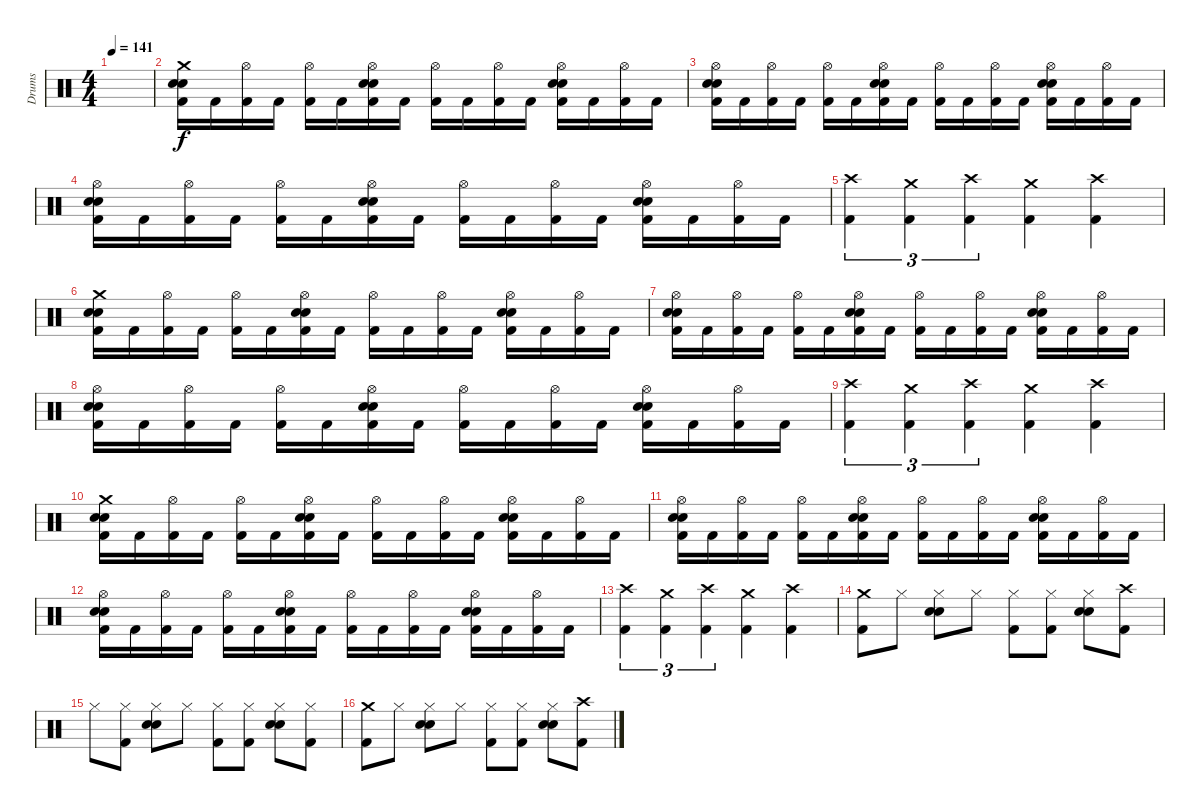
\track ("Drums " "Drums ") {instrument percussion}
\staff {score}
\articulation defaults
\ts (4 4)
\tempo 141
\clef neutral
\ks c
|
("Crash medium (hit)" "Snare (hit) 2" "Electric Snare (hit)" "Kick (hit) 2").16 "Kick (hit) 2".16 ("Hi-Hat (open)" "Kick (hit) 2").16 "Kick (hit) 2".16 ("Hi-Hat (open)" "Kick (hit) 2").16 "Kick (hit) 2".16 ("Hi-Hat (open)" "Snare (hit) 2" "Electric Snare (hit)" "Kick (hit) 2").16 "Kick (hit) 2".16 ("Hi-Hat (open)" "Kick (hit) 2").16 "Kick (hit) 2".16 ("Hi-Hat (open)" "Kick (hit) 2").16 "Kick (hit) 2".16 ("Hi-Hat (open)" "Snare (hit) 2" "Electric Snare (hit)" "Kick (hit) 2").16 "Kick (hit) 2".16 ("Hi-Hat (open)" "Kick (hit) 2").16 "Kick (hit) 2".16 |
("Hi-Hat (open)" "Snare (hit) 2" "Electric Snare (hit)" "Kick (hit) 2").16 "Kick (hit) 2".16 ("Hi-Hat (open)" "Kick (hit) 2").16 "Kick (hit) 2".16 ("Hi-Hat (open)" "Kick (hit) 2").16 "Kick (hit) 2".16 ("Hi-Hat (open)" "Snare (hit) 2" "Electric Snare (hit)" "Kick (hit) 2").16 "Kick (hit) 2".16 ("Hi-Hat (open)" "Kick (hit) 2").16 "Kick (hit) 2".16 ("Hi-Hat (open)" "Kick (hit) 2").16 "Kick (hit) 2".16 ("Hi-Hat (open)" "Snare (hit) 2" "Electric Snare (hit)" "Kick (hit) 2").16 "Kick (hit) 2".16 ("Hi-Hat (open)" "Kick (hit) 2").16 "Kick (hit) 2".16 |
("Hi-Hat (open)" "Snare (hit) 2" "Electric Snare (hit)" "Kick (hit) 2").16 "Kick (hit) 2".16 ("Hi-Hat (open)" "Kick (hit) 2").16 "Kick (hit) 2".16 ("Hi-Hat (open)" "Kick (hit) 2").16 "Kick (hit) 2".16 ("Hi-Hat (open)" "Snare (hit) 2" "Electric Snare (hit)" "Kick (hit) 2").16 "Kick (hit) 2".16 ("Hi-Hat (open)" "Kick (hit) 2").16 "Kick (hit) 2".16 ("Hi-Hat (open)" "Kick (hit) 2").16 "Kick (hit) 2".16 ("Hi-Hat (open)" "Snare (hit) 2" "Electric Snare (hit)" "Kick (hit) 2").16 "Kick (hit) 2".16 ("Hi-Hat (open)" "Kick (hit) 2").16 "Kick (hit) 2".16 |
("Crash high (hit)" "Kick (hit) 2").4{tu (3 2)} ("Crash medium (hit)" "Kick (hit) 2").4{tu (3 2)} ("Crash high (hit)" "Kick (hit) 2").4{tu (3 2)} ("Crash medium (hit)" "Kick (hit) 2").4 ("Crash high (hit)" "Kick (hit) 2").4 |
("Crash medium (hit)" "Snare (hit) 2" "Electric Snare (hit)" "Kick (hit) 2").16 "Kick (hit) 2".16 ("Hi-Hat (open)" "Kick (hit) 2").16 "Kick (hit) 2".16 ("Hi-Hat (open)" "Kick (hit) 2").16 "Kick (hit) 2".16 ("Hi-Hat (open)" "Snare (hit) 2" "Electric Snare (hit)" "Kick (hit) 2").16 "Kick (hit) 2".16 ("Hi-Hat (open)" "Kick (hit) 2").16 "Kick (hit) 2".16 ("Hi-Hat (open)" "Kick (hit) 2").16 "Kick (hit) 2".16 ("Hi-Hat (open)" "Snare (hit) 2" "Electric Snare (hit)" "Kick (hit) 2").16 "Kick (hit) 2".16 ("Hi-Hat (open)" "Kick (hit) 2").16 "Kick (hit) 2".16 |
("Hi-Hat (open)" "Snare (hit) 2" "Electric Snare (hit)" "Kick (hit) 2").16 "Kick (hit) 2".16 ("Hi-Hat (open)" "Kick (hit) 2").16 "Kick (hit) 2".16 ("Hi-Hat (open)" "Kick (hit) 2").16 "Kick (hit) 2".16 ("Hi-Hat (open)" "Snare (hit) 2" "Electric Snare (hit)" "Kick (hit) 2").16 "Kick (hit) 2".16 ("Hi-Hat (open)" "Kick (hit) 2").16 "Kick (hit) 2".16 ("Hi-Hat (open)" "Kick (hit) 2").16 "Kick (hit) 2".16 ("Hi-Hat (open)" "Snare (hit) 2" "Electric Snare (hit)" "Kick (hit) 2").16 "Kick (hit) 2".16 ("Hi-Hat (open)" "Kick (hit) 2").16 "Kick (hit) 2".16 |
("Hi-Hat (open)" "Snare (hit) 2" "Electric Snare (hit)" "Kick (hit) 2").16 "Kick (hit) 2".16 ("Hi-Hat (open)" "Kick (hit) 2").16 "Kick (hit) 2".16 ("Hi-Hat (open)" "Kick (hit) 2").16 "Kick (hit) 2".16 ("Hi-Hat (open)" "Snare (hit) 2" "Electric Snare (hit)" "Kick (hit) 2").16 "Kick (hit) 2".16 ("Hi-Hat (open)" "Kick (hit) 2").16 "Kick (hit) 2".16 ("Hi-Hat (open)" "Kick (hit) 2").16 "Kick (hit) 2".16 ("Hi-Hat (open)" "Snare (hit) 2" "Electric Snare (hit)" "Kick (hit) 2").16 "Kick (hit) 2".16 ("Hi-Hat (open)" "Kick (hit) 2").16 "Kick (hit) 2".16 |
("Crash high (hit)" "Kick (hit) 2").4{tu (3 2)} ("Crash medium (hit)" "Kick (hit) 2").4{tu (3 2)} ("Crash high (hit)" "Kick (hit) 2").4{tu (3 2)} ("Crash medium (hit)" "Kick (hit) 2").4 ("Crash high (hit)" "Kick (hit) 2").4 |
("Crash medium (hit)" "Snare (hit) 2" "Electric Snare (hit)" "Kick (hit) 2").16 "Kick (hit) 2".16 ("Hi-Hat (open)" "Kick (hit) 2").16 "Kick (hit) 2".16 ("Hi-Hat (open)" "Kick (hit) 2").16 "Kick (hit) 2".16 ("Hi-Hat (open)" "Snare (hit) 2" "Electric Snare (hit)" "Kick (hit) 2").16 "Kick (hit) 2".16 ("Hi-Hat (open)" "Kick (hit) 2").16 "Kick (hit) 2".16 ("Hi-Hat (open)" "Kick (hit) 2").16 "Kick (hit) 2".16 ("Hi-Hat (open)" "Snare (hit) 2" "Electric Snare (hit)" "Kick (hit) 2").16 "Kick (hit) 2".16 ("Hi-Hat (open)" "Kick (hit) 2").16 "Kick (hit) 2".16 |
("Hi-Hat (open)" "Snare (hit) 2" "Electric Snare (hit)" "Kick (hit) 2").16 "Kick (hit) 2".16 ("Hi-Hat (open)" "Kick (hit) 2").16 "Kick (hit) 2".16 ("Hi-Hat (open)" "Kick (hit) 2").16 "Kick (hit) 2".16 ("Hi-Hat (open)" "Snare (hit) 2" "Electric Snare (hit)" "Kick (hit) 2").16 "Kick (hit) 2".16 ("Hi-Hat (open)" "Kick (hit) 2").16 "Kick (hit) 2".16 ("Hi-Hat (open)" "Kick (hit) 2").16 "Kick (hit) 2".16 ("Hi-Hat (open)" "Snare (hit) 2" "Electric Snare (hit)" "Kick (hit) 2").16 "Kick (hit) 2".16 ("Hi-Hat (open)" "Kick (hit) 2").16 "Kick (hit) 2".16 |
("Hi-Hat (open)" "Snare (hit) 2" "Electric Snare (hit)" "Kick (hit) 2").16 "Kick (hit) 2".16 ("Hi-Hat (open)" "Kick (hit) 2").16 "Kick (hit) 2".16 ("Hi-Hat (open)" "Kick (hit) 2").16 "Kick (hit) 2".16 ("Hi-Hat (open)" "Snare (hit) 2" "Electric Snare (hit)" "Kick (hit) 2").16 "Kick (hit) 2".16 ("Hi-Hat (open)" "Kick (hit) 2").16 "Kick (hit) 2".16 ("Hi-Hat (open)" "Kick (hit) 2").16 "Kick (hit) 2".16 ("Hi-Hat (open)" "Snare (hit) 2" "Electric Snare (hit)" "Kick (hit) 2").16 "Kick (hit) 2".16 ("Hi-Hat (open)" "Kick (hit) 2").16 "Kick (hit) 2".16 |
("Crash high (hit)" "Kick (hit) 2").4{tu (3 2)} ("Crash medium (hit)" "Kick (hit) 2").4{tu (3 2)} ("Crash high (hit)" "Kick (hit) 2").4{tu (3 2)} ("Crash medium (hit)" "Kick (hit) 2").4 ("Crash high (hit)" "Kick (hit) 2").4 |
("Crash medium (hit)" "Kick (hit) 2").8 "Hi-Hat (closed)".8 ("Hi-Hat (closed)" "Snare (hit) 2" "Electric Snare (hit)").8 "Hi-Hat (closed)".8 ("Hi-Hat (closed)" "Kick (hit) 2").8 ("Hi-Hat (closed)" "Kick (hit) 2").8 ("Hi-Hat (closed)" "Snare (hit) 2" "Electric Snare (hit)").8 ("Crash high (hit)" "Kick (hit) 2").8 |
"Hi-Hat (closed)".8 ("Hi-Hat (closed)" "Kick (hit) 2").8 ("Hi-Hat (closed)" "Snare (hit) 2" "Electric Snare (hit)").8 "Hi-Hat (closed)".8 ("Hi-Hat (closed)" "Kick (hit) 2").8 ("Hi-Hat (closed)" "Kick (hit) 2").8 ("Hi-Hat (closed)" "Snare (hit) 2" "Electric Snare (hit)").8 ("Hi-Hat (closed)" "Kick (hit) 2").8 |
("Crash medium (hit)" "Kick (hit) 2").8 "Hi-Hat (closed)".8 ("Hi-Hat (closed)" "Snare (hit) 2" "Electric Snare (hit)").8 "Hi-Hat (closed)".8 ("Hi-Hat (closed)" "Kick (hit) 2").8 ("Hi-Hat (closed)" "Kick (hit) 2").8 ("Hi-Hat (closed)" "Snare (hit) 2" "Electric Snare (hit)").8 ("Crash high (hit)" "Kick (hit) 2").8
